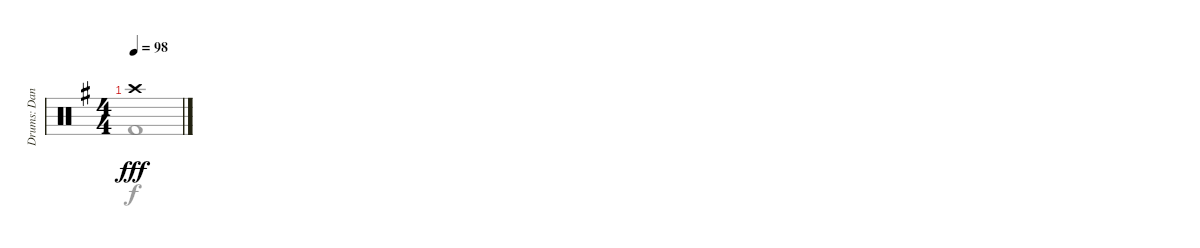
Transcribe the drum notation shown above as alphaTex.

\track ("Drums: Dana" "Drums: Dan") {instrument percussion}
\staff {score}
\articulation defaults
\voice
\ts (4 4)
\tempo 98
\clef neutral
\ks g "Crash high (hit)".1{dy fff volume 0}
|
|
\voice
\clef neutral
\ks g "Kick (hit) 2".1{dy f}
|
|
